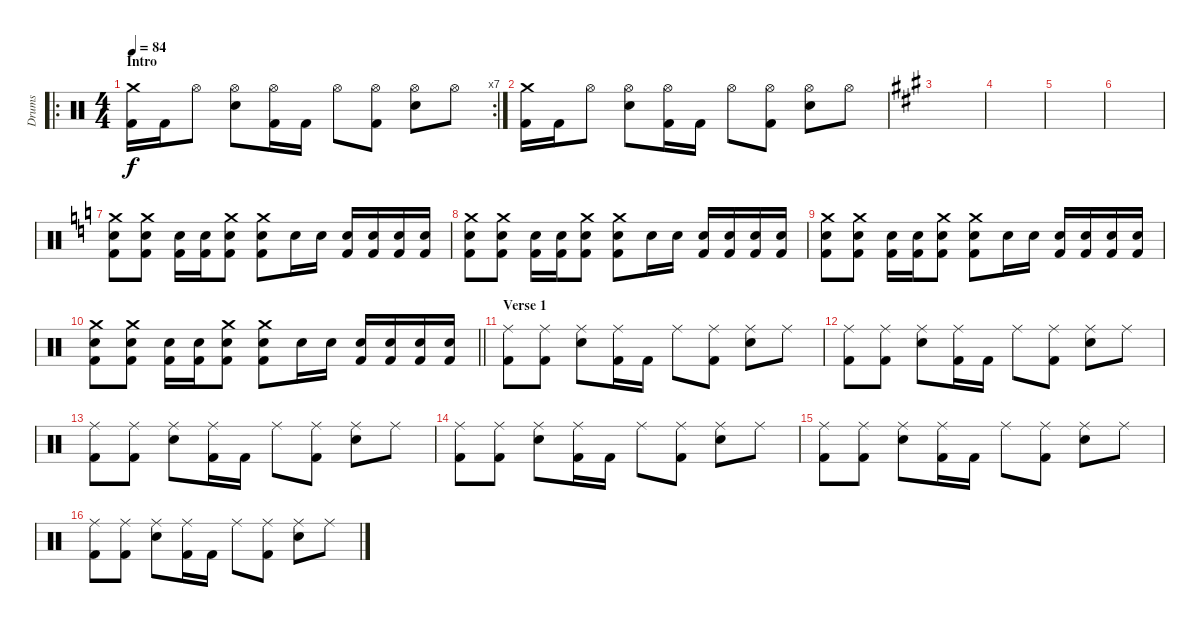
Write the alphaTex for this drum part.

\track ("Drums" "Drums") {instrument percussion}
\staff {score}
\articulation defaults
\ro
\rc 7
\ts (4 4)
\section ("" "Intro")
\tempo 84
\clef neutral
\ks c
("Crash medium (hit)" "Kick (hit) 2").16{dy f} "Kick (hit) 2".16 "Hi-Hat (open)".8 ("Hi-Hat (open)" "Electric Snare (hit)").8 ("Hi-Hat (open)" "Kick (hit) 2").16 "Kick (hit) 2".16 "Hi-Hat (open)".8 ("Hi-Hat (open)" "Kick (hit) 2").8 ("Hi-Hat (open)" "Electric Snare (hit)").8 "Hi-Hat (open)".8 |
("Crash medium (hit)" "Kick (hit) 2").16 "Kick (hit) 2".16 "Hi-Hat (open)".8 ("Hi-Hat (open)" "Electric Snare (hit)").8 ("Hi-Hat (open)" "Kick (hit) 2").16 "Kick (hit) 2".16 "Hi-Hat (open)".8 ("Hi-Hat (open)" "Kick (hit) 2").8 ("Hi-Hat (open)" "Electric Snare (hit)").8 "Hi-Hat (open)".8 |
\ks a
|
|
|
|
\ks c
("Crash medium (hit)" "Electric Snare (hit)" "Kick (hit) 2").8 ("Crash medium (hit)" "Electric Snare (hit)" "Kick (hit) 2").8 ("Electric Snare (hit)" "Kick (hit) 2").16 ("Electric Snare (hit)" "Kick (hit) 2").16 ("Crash medium (hit)" "Electric Snare (hit)" "Kick (hit) 2").8 ("Crash medium (hit)" "Electric Snare (hit)" "Kick (hit) 2").8 "Electric Snare (hit)".16 "Electric Snare (hit)".16 ("Electric Snare (hit)" "Kick (hit) 2").16 ("Electric Snare (hit)" "Kick (hit) 2").16 ("Electric Snare (hit)" "Kick (hit) 2").16 ("Electric Snare (hit)" "Kick (hit) 2").16 |
("Crash medium (hit)" "Electric Snare (hit)" "Kick (hit) 2").8 ("Crash medium (hit)" "Electric Snare (hit)" "Kick (hit) 2").8 ("Electric Snare (hit)" "Kick (hit) 2").16 ("Electric Snare (hit)" "Kick (hit) 2").16 ("Crash medium (hit)" "Electric Snare (hit)" "Kick (hit) 2").8 ("Crash medium (hit)" "Electric Snare (hit)" "Kick (hit) 2").8 "Electric Snare (hit)".16 "Electric Snare (hit)".16 ("Electric Snare (hit)" "Kick (hit) 2").16 ("Electric Snare (hit)" "Kick (hit) 2").16 ("Electric Snare (hit)" "Kick (hit) 2").16 ("Electric Snare (hit)" "Kick (hit) 2").16 |
("Crash medium (hit)" "Electric Snare (hit)" "Kick (hit) 2").8 ("Crash medium (hit)" "Electric Snare (hit)" "Kick (hit) 2").8 ("Electric Snare (hit)" "Kick (hit) 2").16 ("Electric Snare (hit)" "Kick (hit) 2").16 ("Crash medium (hit)" "Electric Snare (hit)" "Kick (hit) 2").8 ("Crash medium (hit)" "Electric Snare (hit)" "Kick (hit) 2").8 "Electric Snare (hit)".16 "Electric Snare (hit)".16 ("Electric Snare (hit)" "Kick (hit) 2").16 ("Electric Snare (hit)" "Kick (hit) 2").16 ("Electric Snare (hit)" "Kick (hit) 2").16 ("Electric Snare (hit)" "Kick (hit) 2").16 |
\barLineRight lightlight
("Crash medium (hit)" "Electric Snare (hit)" "Kick (hit) 2").8 ("Crash medium (hit)" "Electric Snare (hit)" "Kick (hit) 2").8 ("Electric Snare (hit)" "Kick (hit) 2").16 ("Electric Snare (hit)" "Kick (hit) 2").16 ("Crash medium (hit)" "Electric Snare (hit)" "Kick (hit) 2").8 ("Crash medium (hit)" "Electric Snare (hit)" "Kick (hit) 2").8 "Electric Snare (hit)".16 "Electric Snare (hit)".16 ("Electric Snare (hit)" "Kick (hit) 2").16 ("Electric Snare (hit)" "Kick (hit) 2").16 ("Electric Snare (hit)" "Kick (hit) 2").16 ("Electric Snare (hit)" "Kick (hit) 2").16 |
\section ("" "Verse 1")
("Ride (middle)" "Kick (hit) 2").8 ("Ride (middle)" "Kick (hit) 2").8 ("Ride (middle)" "Electric Snare (hit)").8 ("Ride (middle)" "Kick (hit) 2").16 "Kick (hit) 2".16 "Ride (middle)".8 ("Ride (middle)" "Kick (hit) 2").8 ("Ride (middle)" "Electric Snare (hit)").8 "Ride (middle)".8 |
("Ride (middle)" "Kick (hit) 2").8 ("Ride (middle)" "Kick (hit) 2").8 ("Ride (middle)" "Electric Snare (hit)").8 ("Ride (middle)" "Kick (hit) 2").16 "Kick (hit) 2".16 "Ride (middle)".8 ("Ride (middle)" "Kick (hit) 2").8 ("Ride (middle)" "Electric Snare (hit)").8 "Ride (middle)".8 |
("Ride (middle)" "Kick (hit) 2").8 ("Ride (middle)" "Kick (hit) 2").8 ("Ride (middle)" "Electric Snare (hit)").8 ("Ride (middle)" "Kick (hit) 2").16 "Kick (hit) 2".16 "Ride (middle)".8 ("Ride (middle)" "Kick (hit) 2").8 ("Ride (middle)" "Electric Snare (hit)").8 "Ride (middle)".8 |
("Ride (middle)" "Kick (hit) 2").8 ("Ride (middle)" "Kick (hit) 2").8 ("Ride (middle)" "Electric Snare (hit)").8 ("Ride (middle)" "Kick (hit) 2").16 "Kick (hit) 2".16 "Ride (middle)".8 ("Ride (middle)" "Kick (hit) 2").8 ("Ride (middle)" "Electric Snare (hit)").8 "Ride (middle)".8 |
("Ride (middle)" "Kick (hit) 2").8 ("Ride (middle)" "Kick (hit) 2").8 ("Ride (middle)" "Electric Snare (hit)").8 ("Ride (middle)" "Kick (hit) 2").16 "Kick (hit) 2".16 "Ride (middle)".8 ("Ride (middle)" "Kick (hit) 2").8 ("Ride (middle)" "Electric Snare (hit)").8 "Ride (middle)".8 |
("Ride (middle)" "Kick (hit) 2").8 ("Ride (middle)" "Kick (hit) 2").8 ("Ride (middle)" "Electric Snare (hit)").8 ("Ride (middle)" "Kick (hit) 2").16 "Kick (hit) 2".16 "Ride (middle)".8 ("Ride (middle)" "Kick (hit) 2").8 ("Ride (middle)" "Electric Snare (hit)").8 "Ride (middle)".8
